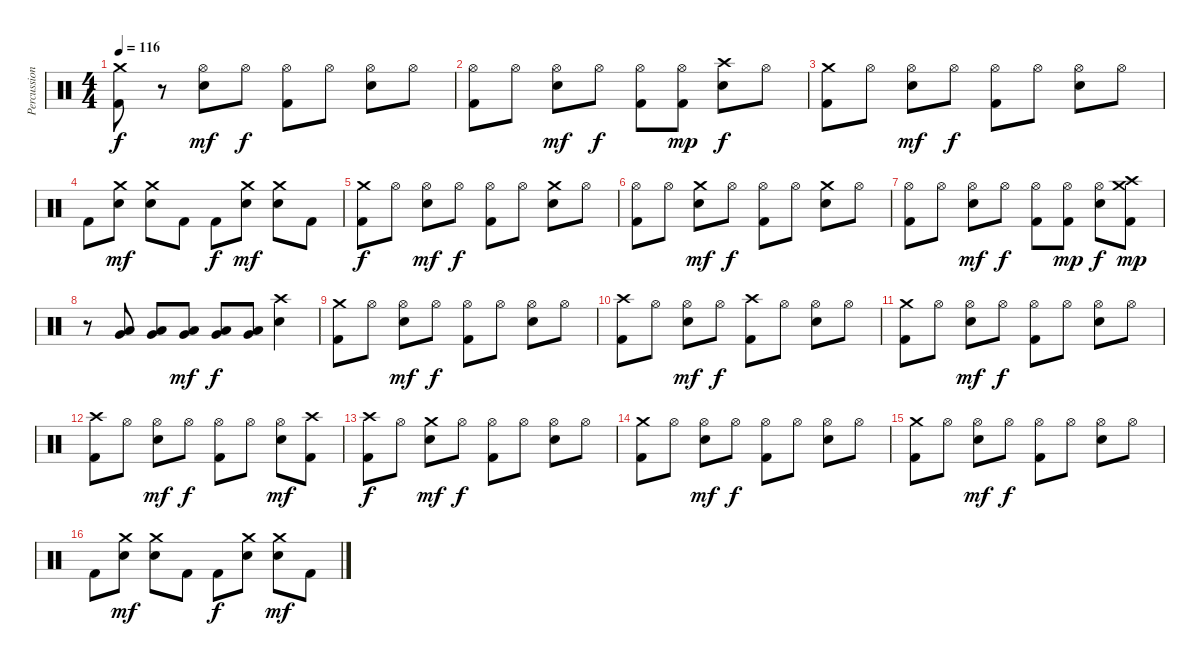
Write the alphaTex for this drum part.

\track ("Percussion" "Percussion") {instrument percussion}
\staff {score}
\articulation defaults
\ts (4 4)
\tempo 116
\clef neutral
\ks c
("Kick (hit) 2" "Crash medium (hit)").8{dy f} r.8 ("Snare (hit) 2" "Hi-Hat (open)").8{dy mf} "Hi-Hat (open)".8{dy f} ("Kick (hit) 2" "Hi-Hat (open)").8 "Hi-Hat (open)".8 ("Snare (hit) 2" "Hi-Hat (open)").8 "Hi-Hat (open)".8 |
("Kick (hit) 2" "Hi-Hat (open)").8 "Hi-Hat (open)".8 ("Snare (hit) 2" "Hi-Hat (open)").8{dy mf} "Hi-Hat (open)".8{dy f} ("Kick (hit) 2" "Hi-Hat (open)").8 ("Kick (hit) 2" "Hi-Hat (open)").8{dy mp} ("Snare (hit) 2" "Crash high (hit)").8{dy f} "Hi-Hat (open)".8 |
("Kick (hit) 2" "Crash medium (hit)").8 "Hi-Hat (open)".8 ("Snare (hit) 2" "Hi-Hat (open)").8{dy mf} "Hi-Hat (open)".8{dy f} ("Kick (hit) 2" "Hi-Hat (open)").8 "Hi-Hat (open)".8 ("Snare (hit) 2" "Hi-Hat (open)").8 "Hi-Hat (open)".8 |
"Kick (hit) 2".8 ("Snare (hit) 2" "Crash medium (hit)").8{dy mf} ("Snare (hit) 2" "Crash medium (hit)").8 "Kick (hit) 2".8 "Kick (hit) 2".8{dy f} ("Snare (hit) 2" "Crash medium (hit)").8{dy mf} ("Snare (hit) 2" "Crash medium (hit)").8 "Kick (hit) 2".8 |
("Kick (hit) 2" "Crash medium (hit)").8{dy f} "Hi-Hat (open)".8 ("Snare (hit) 2" "Hi-Hat (open)").8{dy mf} "Hi-Hat (open)".8{dy f} ("Kick (hit) 2" "Hi-Hat (open)").8 "Hi-Hat (open)".8 ("Snare (hit) 2" "Crash medium (hit)").8 "Hi-Hat (open)".8 |
("Kick (hit) 2" "Hi-Hat (open)").8 "Hi-Hat (open)".8 ("Snare (hit) 2" "Crash medium (hit)").8{dy mf} "Hi-Hat (open)".8{dy f} ("Kick (hit) 2" "Hi-Hat (open)").8 "Hi-Hat (open)".8 ("Snare (hit) 2" "Crash medium (hit)").8 "Hi-Hat (open)".8 |
("Kick (hit) 2" "Hi-Hat (open)").8 "Hi-Hat (open)".8 ("Snare (hit) 2" "Hi-Hat (open)").8{dy mf} "Hi-Hat (open)".8{dy f} ("Kick (hit) 2" "Hi-Hat (open)").8 ("Kick (hit) 2" "Hi-Hat (open)").8{dy mp} ("Snare (hit) 2" "Hi-Hat (open)").8{dy f} ("Kick (hit) 2" "Crash high (hit)" "Crash medium (hit)").8{dy mp} |
r.8 ("Very Low Tom (hit)" "Low Tom (hit)").8 ("Very Low Tom (hit)" "Low Tom (hit)").8 ("Very Low Tom (hit)" "Low Tom (hit)").8{dy mf} ("Very Low Tom (hit)" "Low Tom (hit)").8{dy f} ("Very Low Tom (hit)" "Low Tom (hit)").8 ("Snare (hit) 2" "Crash high (hit)").4 |
("Kick (hit) 2" "Crash medium (hit)").8 "Hi-Hat (open)".8 ("Snare (hit) 2" "Hi-Hat (open)").8{dy mf} "Hi-Hat (open)".8{dy f} ("Kick (hit) 2" "Hi-Hat (open)").8 "Hi-Hat (open)".8 ("Snare (hit) 2" "Hi-Hat (open)").8 "Hi-Hat (open)".8 |
("Kick (hit) 2" "Crash high (hit)").8 "Hi-Hat (open)".8 ("Snare (hit) 2" "Hi-Hat (open)").8{dy mf} "Hi-Hat (open)".8{dy f} ("Kick (hit) 2" "Crash high (hit)").8 "Hi-Hat (open)".8 ("Snare (hit) 2" "Hi-Hat (open)").8 "Hi-Hat (open)".8 |
("Kick (hit) 2" "Crash medium (hit)").8 "Hi-Hat (open)".8 ("Snare (hit) 2" "Hi-Hat (open)").8{dy mf} "Hi-Hat (open)".8{dy f} ("Kick (hit) 2" "Hi-Hat (open)").8 "Hi-Hat (open)".8 ("Snare (hit) 2" "Hi-Hat (open)").8 "Hi-Hat (open)".8 |
("Kick (hit) 2" "Crash high (hit)").8 "Hi-Hat (open)".8 ("Snare (hit) 2" "Hi-Hat (open)").8{dy mf} "Hi-Hat (open)".8{dy f} ("Kick (hit) 2" "Hi-Hat (open)").8 "Hi-Hat (open)".8 ("Snare (hit) 2" "Hi-Hat (open)").8{dy mf} ("Kick (hit) 2" "Crash high (hit)").8 |
("Kick (hit) 2" "Crash high (hit)").8{dy f} "Hi-Hat (open)".8 ("Snare (hit) 2" "Crash medium (hit)").8{dy mf} "Hi-Hat (open)".8{dy f} ("Kick (hit) 2" "Hi-Hat (open)").8 "Hi-Hat (open)".8 ("Snare (hit) 2" "Hi-Hat (open)").8 "Hi-Hat (open)".8 |
("Kick (hit) 2" "Crash medium (hit)").8 "Hi-Hat (open)".8 ("Snare (hit) 2" "Hi-Hat (open)").8{dy mf} "Hi-Hat (open)".8{dy f} ("Kick (hit) 2" "Hi-Hat (open)").8 "Hi-Hat (open)".8 ("Snare (hit) 2" "Hi-Hat (open)").8 "Hi-Hat (open)".8 |
("Kick (hit) 2" "Crash medium (hit)").8 "Hi-Hat (open)".8 ("Snare (hit) 2" "Hi-Hat (open)").8{dy mf} "Hi-Hat (open)".8{dy f} ("Kick (hit) 2" "Hi-Hat (open)").8 "Hi-Hat (open)".8 ("Snare (hit) 2" "Hi-Hat (open)").8 "Hi-Hat (open)".8 |
"Kick (hit) 2".8 ("Snare (hit) 2" "Crash medium (hit)").8{dy mf} ("Snare (hit) 2" "Crash medium (hit)").8 "Kick (hit) 2".8 "Kick (hit) 2".8{dy f} ("Snare (hit) 2" "Crash medium (hit)").8 ("Snare (hit) 2" "Crash medium (hit)").8{dy mf} "Kick (hit) 2".8
